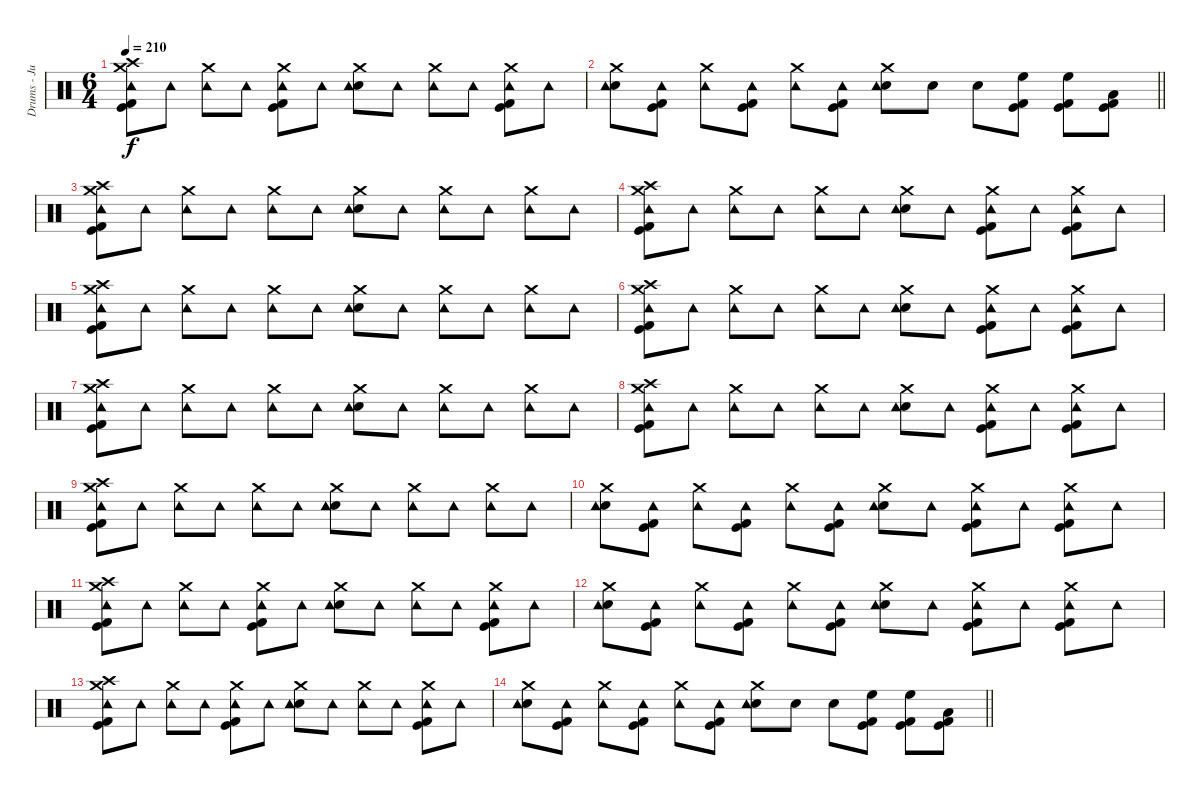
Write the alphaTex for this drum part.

\track ("Drums - Justin Foley" "Drums - Ju") {instrument percussion}
\staff {score}
\articulation defaults
\ts (6 4)
\tempo 210
\clef neutral
\ks c
("Crash medium (hit)" "Kick (hit) 2" "Kick (hit)" "Crash high (hit)" "Tambourine (hit)").8{dy f} "Tambourine (hit)".8 ("Crash medium (hit)" "Tambourine (hit)").8 "Tambourine (hit)".8 ("Crash medium (hit)" "Kick (hit) 2" "Kick (hit)" "Tambourine (hit)").8 "Tambourine (hit)".8 ("Crash medium (hit)" "Snare (hit) 2" "Tambourine (hit)").8 "Tambourine (hit)".8 ("Crash medium (hit)" "Tambourine (hit)").8 "Tambourine (hit)".8 ("Crash medium (hit)" "Kick (hit) 2" "Kick (hit)" "Tambourine (hit)").8 "Tambourine (hit)".8 |
\barLineRight lightlight
("Crash medium (hit)" "Snare (hit) 2" "Tambourine (hit)").8 ("Kick (hit) 2" "Kick (hit)" "Tambourine (hit)").8 ("Crash medium (hit)" "Tambourine (hit)").8 ("Kick (hit) 2" "Kick (hit)" "Tambourine (hit)").8 ("Crash medium (hit)" "Tambourine (hit)").8 ("Kick (hit) 2" "Kick (hit)" "Tambourine (hit)").8 ("Crash medium (hit)" "Snare (hit) 2" "Tambourine (hit)").8 "Snare (hit) 2".8 "Snare (hit) 2".8 ("High Floor Tom (hit)" "Kick (hit) 2" "Kick (hit)").8 ("High Floor Tom (hit)" "Kick (hit) 2" "Kick (hit)").8 ("Low Tom (hit)" "Kick (hit) 2" "Kick (hit)").8 |
("Crash medium (hit)" "Kick (hit) 2" "Kick (hit)" "Crash high (hit)" "Tambourine (hit)").8{volume 13} "Tambourine (hit)".8 ("Crash medium (hit)" "Tambourine (hit)").8 "Tambourine (hit)".8 ("Crash medium (hit)" "Tambourine (hit)").8 "Tambourine (hit)".8 ("Crash medium (hit)" "Snare (hit) 2" "Tambourine (hit)").8 "Tambourine (hit)".8 ("Crash medium (hit)" "Tambourine (hit)").8 "Tambourine (hit)".8 ("Crash medium (hit)" "Tambourine (hit)").8 "Tambourine (hit)".8 |
("Crash medium (hit)" "Kick (hit) 2" "Kick (hit)" "Crash high (hit)" "Tambourine (hit)").8{volume 13} "Tambourine (hit)".8 ("Crash medium (hit)" "Tambourine (hit)").8 "Tambourine (hit)".8 ("Crash medium (hit)" "Tambourine (hit)").8 "Tambourine (hit)".8 ("Crash medium (hit)" "Snare (hit) 2" "Tambourine (hit)").8 "Tambourine (hit)".8 ("Crash medium (hit)" "Kick (hit) 2" "Kick (hit)" "Tambourine (hit)").8 "Tambourine (hit)".8 ("Crash medium (hit)" "Kick (hit) 2" "Kick (hit)" "Tambourine (hit)").8 "Tambourine (hit)".8 |
("Crash medium (hit)" "Kick (hit) 2" "Kick (hit)" "Crash high (hit)" "Tambourine (hit)").8{volume 13} "Tambourine (hit)".8 ("Crash medium (hit)" "Tambourine (hit)").8 "Tambourine (hit)".8 ("Crash medium (hit)" "Tambourine (hit)").8 "Tambourine (hit)".8 ("Crash medium (hit)" "Snare (hit) 2" "Tambourine (hit)").8 "Tambourine (hit)".8 ("Crash medium (hit)" "Tambourine (hit)").8 "Tambourine (hit)".8 ("Crash medium (hit)" "Tambourine (hit)").8 "Tambourine (hit)".8 |
("Crash medium (hit)" "Kick (hit) 2" "Kick (hit)" "Crash high (hit)" "Tambourine (hit)").8{volume 13} "Tambourine (hit)".8 ("Crash medium (hit)" "Tambourine (hit)").8 "Tambourine (hit)".8 ("Crash medium (hit)" "Tambourine (hit)").8 "Tambourine (hit)".8 ("Crash medium (hit)" "Snare (hit) 2" "Tambourine (hit)").8 "Tambourine (hit)".8 ("Crash medium (hit)" "Kick (hit) 2" "Kick (hit)" "Tambourine (hit)").8 "Tambourine (hit)".8 ("Crash medium (hit)" "Kick (hit) 2" "Kick (hit)" "Tambourine (hit)").8 "Tambourine (hit)".8 |
("Crash medium (hit)" "Kick (hit) 2" "Kick (hit)" "Crash high (hit)" "Tambourine (hit)").8{volume 13} "Tambourine (hit)".8 ("Crash medium (hit)" "Tambourine (hit)").8 "Tambourine (hit)".8 ("Crash medium (hit)" "Tambourine (hit)").8 "Tambourine (hit)".8 ("Crash medium (hit)" "Snare (hit) 2" "Tambourine (hit)").8 "Tambourine (hit)".8 ("Crash medium (hit)" "Tambourine (hit)").8 "Tambourine (hit)".8 ("Crash medium (hit)" "Tambourine (hit)").8 "Tambourine (hit)".8 |
("Crash medium (hit)" "Kick (hit) 2" "Kick (hit)" "Crash high (hit)" "Tambourine (hit)").8{volume 13} "Tambourine (hit)".8 ("Crash medium (hit)" "Tambourine (hit)").8 "Tambourine (hit)".8 ("Crash medium (hit)" "Tambourine (hit)").8 "Tambourine (hit)".8 ("Crash medium (hit)" "Snare (hit) 2" "Tambourine (hit)").8 "Tambourine (hit)".8 ("Crash medium (hit)" "Kick (hit) 2" "Kick (hit)" "Tambourine (hit)").8 "Tambourine (hit)".8 ("Crash medium (hit)" "Kick (hit) 2" "Kick (hit)" "Tambourine (hit)").8 "Tambourine (hit)".8 |
("Crash medium (hit)" "Kick (hit) 2" "Kick (hit)" "Crash high (hit)" "Tambourine (hit)").8{volume 13} "Tambourine (hit)".8 ("Crash medium (hit)" "Tambourine (hit)").8 "Tambourine (hit)".8 ("Crash medium (hit)" "Tambourine (hit)").8 "Tambourine (hit)".8 ("Crash medium (hit)" "Snare (hit) 2" "Tambourine (hit)").8 "Tambourine (hit)".8 ("Crash medium (hit)" "Tambourine (hit)").8 "Tambourine (hit)".8 ("Crash medium (hit)" "Tambourine (hit)").8 "Tambourine (hit)".8 |
("Crash medium (hit)" "Snare (hit) 2" "Tambourine (hit)").8 ("Kick (hit) 2" "Kick (hit)" "Tambourine (hit)").8 ("Crash medium (hit)" "Tambourine (hit)").8 ("Kick (hit) 2" "Kick (hit)" "Tambourine (hit)").8 ("Crash medium (hit)" "Tambourine (hit)").8 ("Kick (hit) 2" "Kick (hit)" "Tambourine (hit)").8 ("Crash medium (hit)" "Snare (hit) 2" "Tambourine (hit)").8 "Tambourine (hit)".8 ("Crash medium (hit)" "Kick (hit) 2" "Kick (hit)" "Tambourine (hit)").8 "Tambourine (hit)".8 ("Crash medium (hit)" "Kick (hit) 2" "Kick (hit)" "Tambourine (hit)").8 "Tambourine (hit)".8 |
("Crash medium (hit)" "Kick (hit) 2" "Kick (hit)" "Crash high (hit)" "Tambourine (hit)").8 "Tambourine (hit)".8 ("Crash medium (hit)" "Tambourine (hit)").8 "Tambourine (hit)".8 ("Crash medium (hit)" "Kick (hit) 2" "Kick (hit)" "Tambourine (hit)").8 "Tambourine (hit)".8 ("Crash medium (hit)" "Snare (hit) 2" "Tambourine (hit)").8 "Tambourine (hit)".8 ("Crash medium (hit)" "Tambourine (hit)").8 "Tambourine (hit)".8 ("Crash medium (hit)" "Kick (hit) 2" "Kick (hit)" "Tambourine (hit)").8 "Tambourine (hit)".8 |
("Crash medium (hit)" "Snare (hit) 2" "Tambourine (hit)").8 ("Kick (hit) 2" "Kick (hit)" "Tambourine (hit)").8 ("Crash medium (hit)" "Tambourine (hit)").8 ("Kick (hit) 2" "Kick (hit)" "Tambourine (hit)").8 ("Crash medium (hit)" "Tambourine (hit)").8 ("Kick (hit) 2" "Kick (hit)" "Tambourine (hit)").8 ("Crash medium (hit)" "Snare (hit) 2" "Tambourine (hit)").8 "Tambourine (hit)".8 ("Crash medium (hit)" "Kick (hit) 2" "Kick (hit)" "Tambourine (hit)").8 "Tambourine (hit)".8 ("Crash medium (hit)" "Kick (hit) 2" "Kick (hit)" "Tambourine (hit)").8 "Tambourine (hit)".8 |
("Crash medium (hit)" "Kick (hit) 2" "Kick (hit)" "Crash high (hit)" "Tambourine (hit)").8 "Tambourine (hit)".8 ("Crash medium (hit)" "Tambourine (hit)").8 "Tambourine (hit)".8 ("Crash medium (hit)" "Kick (hit) 2" "Kick (hit)" "Tambourine (hit)").8 "Tambourine (hit)".8 ("Crash medium (hit)" "Snare (hit) 2" "Tambourine (hit)").8 "Tambourine (hit)".8 ("Crash medium (hit)" "Tambourine (hit)").8 "Tambourine (hit)".8 ("Crash medium (hit)" "Kick (hit) 2" "Kick (hit)" "Tambourine (hit)").8 "Tambourine (hit)".8 |
\barLineRight lightlight
("Crash medium (hit)" "Snare (hit) 2" "Tambourine (hit)").8 ("Kick (hit) 2" "Kick (hit)" "Tambourine (hit)").8 ("Crash medium (hit)" "Tambourine (hit)").8 ("Kick (hit) 2" "Kick (hit)" "Tambourine (hit)").8 ("Crash medium (hit)" "Tambourine (hit)").8 ("Kick (hit) 2" "Kick (hit)" "Tambourine (hit)").8 ("Crash medium (hit)" "Snare (hit) 2" "Tambourine (hit)").8 "Snare (hit) 2".8 "Snare (hit) 2".8 ("High Floor Tom (hit)" "Kick (hit) 2" "Kick (hit)").8 ("High Floor Tom (hit)" "Kick (hit) 2" "Kick (hit)").8 ("Low Tom (hit)" "Kick (hit) 2" "Kick (hit)").8
